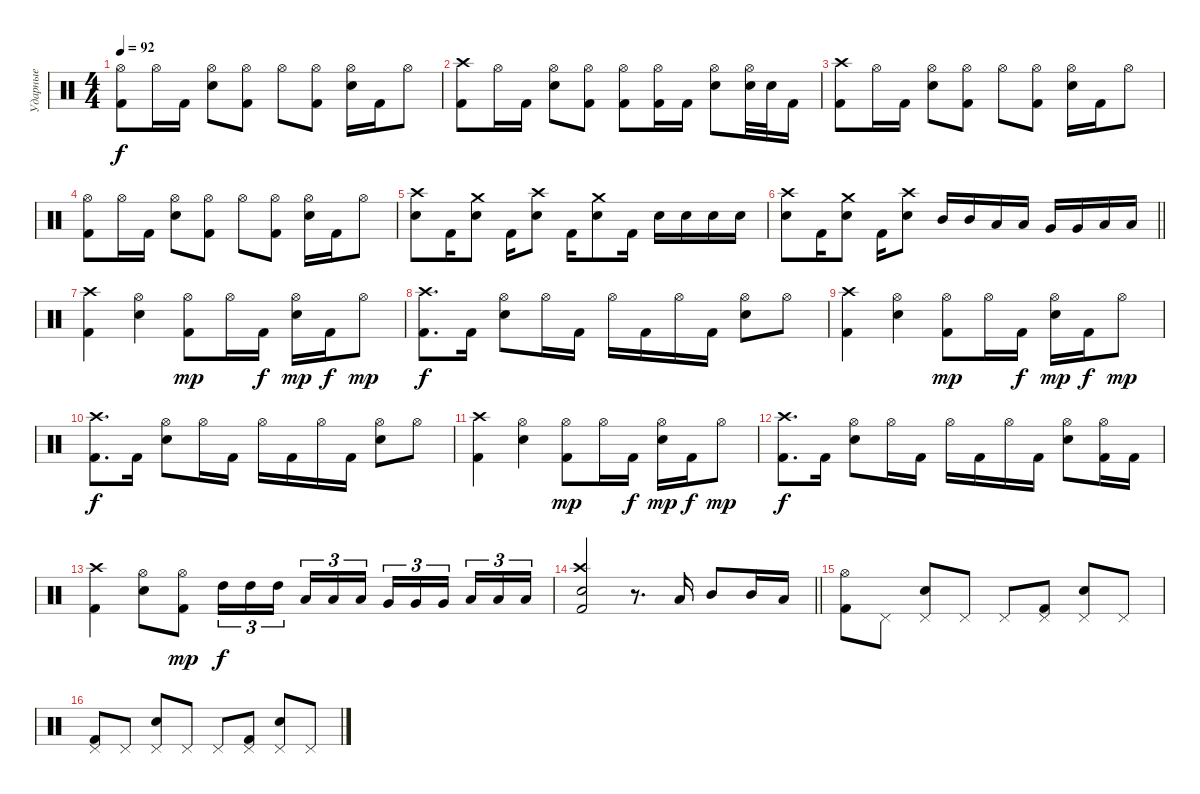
\track ("Ударные" "Ударные") {instrument percussion}
\staff {score}
\articulation defaults
\ts (4 4)
\tempo 92
\clef neutral
\ks c
("Kick (hit) 2" "Hi-Hat (open)").8{dy f} "Hi-Hat (open)".16 "Kick (hit) 2".16 ("Snare (hit) 2" "Hi-Hat (open)").8 ("Kick (hit) 2" "Hi-Hat (open)").8 "Hi-Hat (open)".8 ("Kick (hit) 2" "Hi-Hat (open)").8 ("Snare (hit) 2" "Hi-Hat (open)").16 "Kick (hit) 2".16 "Hi-Hat (open)".8 |
("Kick (hit) 2" "Crash high (hit)").8 "Hi-Hat (open)".16 "Kick (hit) 2".16 ("Snare (hit) 2" "Hi-Hat (open)").8 ("Kick (hit) 2" "Hi-Hat (open)").8 ("Kick (hit) 2" "Hi-Hat (open)").8 ("Kick (hit) 2" "Hi-Hat (open)").16 "Kick (hit) 2".16 ("Snare (hit) 2" "Hi-Hat (open)").8 ("Snare (hit) 2" "Hi-Hat (open)").32 "Snare (hit) 2".32 "Kick (hit) 2".16 |
("Kick (hit) 2" "Crash high (hit)").8 "Hi-Hat (open)".16 "Kick (hit) 2".16 ("Snare (hit) 2" "Hi-Hat (open)").8 ("Kick (hit) 2" "Hi-Hat (open)").8 "Hi-Hat (open)".8 ("Kick (hit) 2" "Hi-Hat (open)").8 ("Snare (hit) 2" "Hi-Hat (open)").16 "Kick (hit) 2".16 "Hi-Hat (open)".8 |
("Kick (hit) 2" "Hi-Hat (open)").8 "Hi-Hat (open)".16 "Kick (hit) 2".16 ("Snare (hit) 2" "Hi-Hat (open)").8 ("Kick (hit) 2" "Hi-Hat (open)").8 "Hi-Hat (open)".8 ("Kick (hit) 2" "Hi-Hat (open)").8 ("Snare (hit) 2" "Hi-Hat (open)").16 "Kick (hit) 2".16 "Hi-Hat (open)".8 |
("Snare (hit) 2" "Crash high (hit)").8 "Kick (hit) 2".16 ("Snare (hit) 2" "Crash medium (hit)").8 "Kick (hit) 2".16 ("Snare (hit) 2" "Crash high (hit)").8 "Kick (hit) 2".16 ("Snare (hit) 2" "Crash medium (hit)").8 "Kick (hit) 2".16 "Snare (hit) 2".16 "Snare (hit) 2".16 "Snare (hit) 2".16 "Snare (hit) 2".16 |
\barLineRight lightlight
("Snare (hit) 2" "Crash high (hit)").8 "Kick (hit) 2".16 ("Snare (hit) 2" "Crash medium (hit)").8 "Kick (hit) 2".16 ("Snare (hit) 2" "Crash high (hit)").8 "Mid Tom (hit)".16 "Mid Tom (hit)".16 "Low Tom (hit)".16 "Low Tom (hit)".16 "Very Low Tom (hit)".16 "Very Low Tom (hit)".16 "Low Floor Tom (hit)".16 "Low Floor Tom (hit)".16 |
("Kick (hit) 2" "Crash high (hit)").4 ("Snare (hit) 2" "Hi-Hat (open)").4 ("Kick (hit) 2" "Hi-Hat (open)").8{dy mp} "Hi-Hat (open)".16 "Kick (hit) 2".16{dy f} ("Snare (hit) 2" "Hi-Hat (open)").16{dy mp} "Kick (hit) 2".16{dy f} "Hi-Hat (open)".8{dy mp} |
("Kick (hit) 2" "Crash high (hit)").8{d dy f} "Kick (hit) 2".16 ("Snare (hit) 2" "Hi-Hat (open)").8 "Hi-Hat (open)".16 "Kick (hit) 2".16 "Hi-Hat (open)".16 "Kick (hit) 2".16 "Hi-Hat (open)".16 "Kick (hit) 2".16 ("Snare (hit) 2" "Hi-Hat (open)").8 "Hi-Hat (open)".8 |
("Kick (hit) 2" "Crash high (hit)").4 ("Snare (hit) 2" "Hi-Hat (open)").4 ("Kick (hit) 2" "Hi-Hat (open)").8{dy mp} "Hi-Hat (open)".16 "Kick (hit) 2".16{dy f} ("Snare (hit) 2" "Hi-Hat (open)").16{dy mp} "Kick (hit) 2".16{dy f} "Hi-Hat (open)".8{dy mp} |
("Kick (hit) 2" "Crash high (hit)").8{d dy f} "Kick (hit) 2".16 ("Snare (hit) 2" "Hi-Hat (open)").8 "Hi-Hat (open)".16 "Kick (hit) 2".16 "Hi-Hat (open)".16 "Kick (hit) 2".16 "Hi-Hat (open)".16 "Kick (hit) 2".16 ("Snare (hit) 2" "Hi-Hat (open)").8 "Hi-Hat (open)".8 |
("Kick (hit) 2" "Crash high (hit)").4 ("Snare (hit) 2" "Hi-Hat (open)").4 ("Kick (hit) 2" "Hi-Hat (open)").8{dy mp} "Hi-Hat (open)".16 "Kick (hit) 2".16{dy f} ("Snare (hit) 2" "Hi-Hat (open)").16{dy mp} "Kick (hit) 2".16{dy f} "Hi-Hat (open)".8{dy mp} |
("Kick (hit) 2" "Crash high (hit)").8{d dy f} "Kick (hit) 2".16 ("Snare (hit) 2" "Hi-Hat (open)").8 "Hi-Hat (open)".16 "Kick (hit) 2".16 "Hi-Hat (open)".16 "Kick (hit) 2".16 "Hi-Hat (open)".16 "Kick (hit) 2".16 ("Snare (hit) 2" "Hi-Hat (open)").8 ("Kick (hit) 2" "Hi-Hat (open)").16 "Kick (hit) 2".16 |
("Kick (hit) 2" "Crash high (hit)").4 ("Snare (hit) 2" "Hi-Hat (open)").8 ("Kick (hit) 2" "Hi-Hat (open)").8{dy mp} "High Tom (hit)".16{tu (3 2) dy f} "High Tom (hit)".16{tu (3 2)} "High Tom (hit)".16{tu (3 2) beam splitsecondary} "Low Tom (hit)".16{tu (3 2)} "Low Tom (hit)".16{tu (3 2)} "Low Tom (hit)".16{tu (3 2)} "Very Low Tom (hit)".16{tu (3 2)} "Very Low Tom (hit)".16{tu (3 2)} "Very Low Tom (hit)".16{tu (3 2) beam splitsecondary} "Low Floor Tom (hit)".16{tu (3 2)} "Low Floor Tom (hit)".16{tu (3 2)} "Low Floor Tom (hit)".16{tu (3 2)} |
\barLineRight lightlight
("Kick (hit) 2" "Electric Snare (hit)" "Crash high (hit)").2 r.8{d} "Low Tom (hit)".16 "Mid Tom (hit)".8 "Mid Tom (hit)".16 "Low Tom (hit)".16 |
("Kick (hit) 2" "Hi-Hat (open)").8 "Pedal Hi-Hat (hit)".8 ("Electric Snare (hit)" "Pedal Hi-Hat (hit)").8 "Pedal Hi-Hat (hit)".8 "Pedal Hi-Hat (hit)".8 ("Kick (hit) 2" "Pedal Hi-Hat (hit)").8 ("Electric Snare (hit)" "Pedal Hi-Hat (hit)").8 "Pedal Hi-Hat (hit)".8 |
("Kick (hit) 2" "Pedal Hi-Hat (hit)").8 "Pedal Hi-Hat (hit)".8 ("Electric Snare (hit)" "Pedal Hi-Hat (hit)").8 "Pedal Hi-Hat (hit)".8 "Pedal Hi-Hat (hit)".8 ("Kick (hit) 2" "Pedal Hi-Hat (hit)").8 ("Electric Snare (hit)" "Pedal Hi-Hat (hit)").8 "Pedal Hi-Hat (hit)".8
